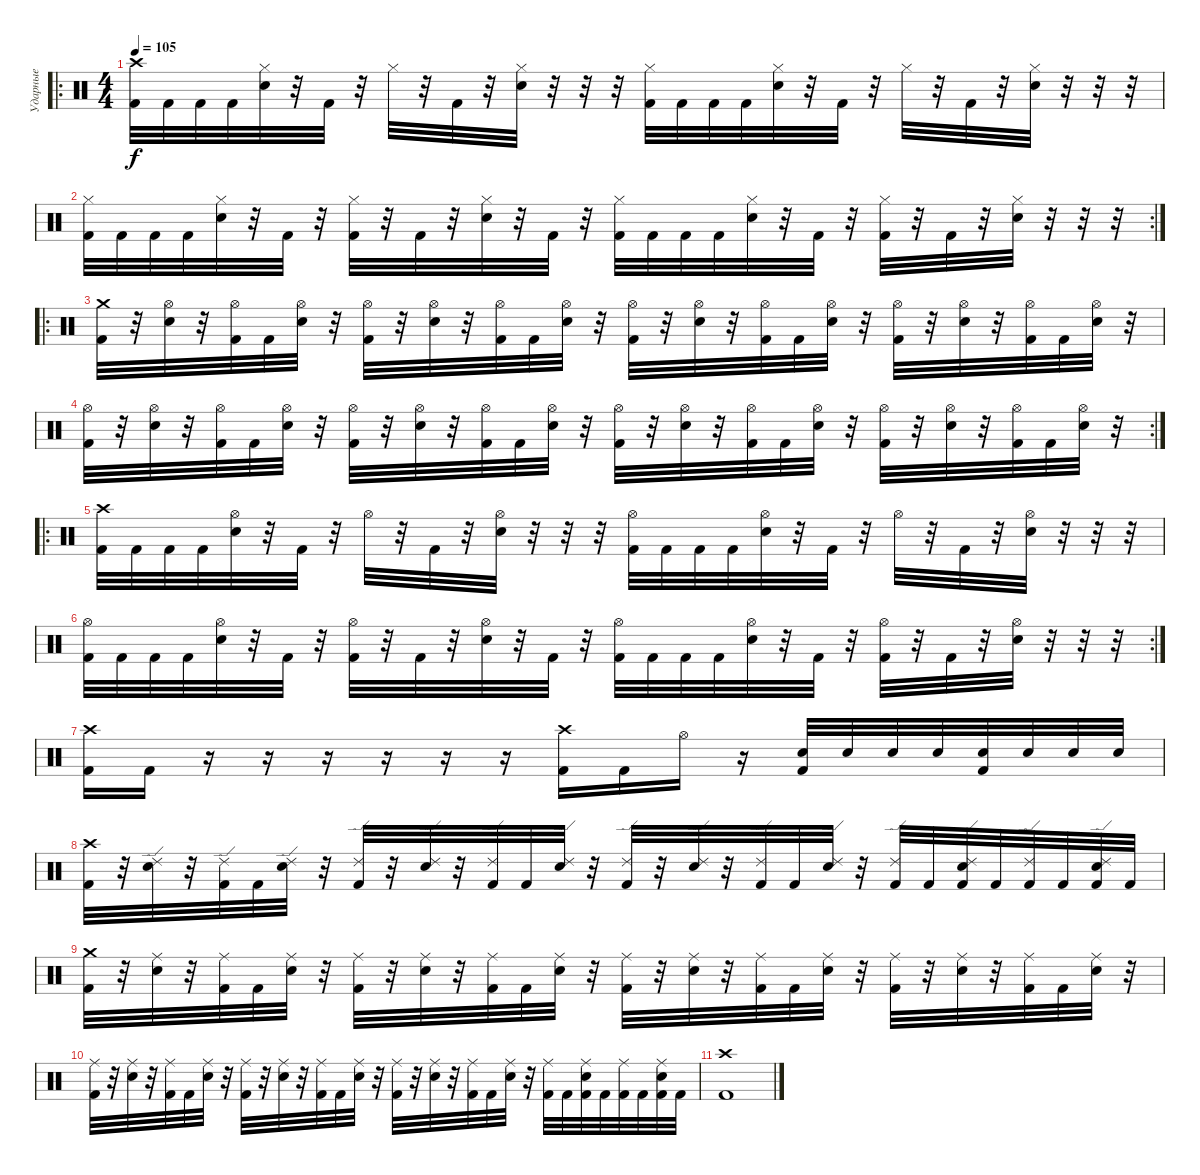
\track ("Ударные" "Ударные") {instrument percussion}
\staff {score}
\articulation defaults
\ro
\ts (4 4)
\tempo 105
\clef neutral
\ks c
("Crash high (hit)" "Kick (hit) 2").32{dy f} "Kick (hit) 2".32 "Kick (hit) 2".32 "Kick (hit) 2".32 ("Hi-Hat (closed)" "Electric Snare (hit)").32 r.32 "Kick (hit) 2".32 r.32 "Hi-Hat (closed)".32 r.32 "Kick (hit) 2".32 r.32 ("Hi-Hat (closed)" "Electric Snare (hit)").32 r.32 r.32 r.32 ("Hi-Hat (closed)" "Kick (hit) 2").32 "Kick (hit) 2".32 "Kick (hit) 2".32 "Kick (hit) 2".32 ("Hi-Hat (closed)" "Electric Snare (hit)").32 r.32 "Kick (hit) 2".32 r.32 "Hi-Hat (closed)".32 r.32 "Kick (hit) 2".32 r.32 ("Hi-Hat (closed)" "Electric Snare (hit)").32 r.32 r.32 r.32 |
\rc 2
("Hi-Hat (closed)" "Kick (hit) 2").32 "Kick (hit) 2".32 "Kick (hit) 2".32 "Kick (hit) 2".32 ("Hi-Hat (closed)" "Electric Snare (hit)").32 r.32 "Kick (hit) 2".32 r.32 ("Hi-Hat (closed)" "Kick (hit) 2").32 r.32 "Kick (hit) 2".32 r.32 ("Hi-Hat (closed)" "Electric Snare (hit)").32 r.32 "Kick (hit) 2".32 r.32 ("Hi-Hat (closed)" "Kick (hit) 2").32 "Kick (hit) 2".32 "Kick (hit) 2".32 "Kick (hit) 2".32 ("Hi-Hat (closed)" "Electric Snare (hit)").32 r.32 "Kick (hit) 2".32 r.32 ("Hi-Hat (closed)" "Kick (hit) 2").32 r.32 "Kick (hit) 2".32 r.32 ("Hi-Hat (closed)" "Electric Snare (hit)").32 r.32 r.32 r.32 |
\ro
("Crash medium (hit)" "Kick (hit) 2").32 r.32 ("Hi-Hat (open)" "Electric Snare (hit)").32 r.32 ("Hi-Hat (open)" "Kick (hit) 2").32 "Kick (hit) 2".32 ("Hi-Hat (open)" "Electric Snare (hit)").32 r.32 ("Hi-Hat (open)" "Kick (hit) 2").32 r.32 ("Hi-Hat (open)" "Electric Snare (hit)").32 r.32 ("Hi-Hat (open)" "Kick (hit) 2").32 "Kick (hit) 2".32 ("Hi-Hat (open)" "Electric Snare (hit)").32 r.32 ("Hi-Hat (open)" "Kick (hit) 2").32 r.32 ("Hi-Hat (open)" "Electric Snare (hit)").32 r.32 ("Hi-Hat (open)" "Kick (hit) 2").32 "Kick (hit) 2".32 ("Hi-Hat (open)" "Electric Snare (hit)").32 r.32 ("Hi-Hat (open)" "Kick (hit) 2").32 r.32 ("Hi-Hat (open)" "Electric Snare (hit)").32 r.32 ("Hi-Hat (open)" "Kick (hit) 2").32 "Kick (hit) 2".32 ("Hi-Hat (open)" "Electric Snare (hit)").32 r.32 |
\rc 2
("Hi-Hat (open)" "Kick (hit) 2").32 r.32 ("Hi-Hat (open)" "Electric Snare (hit)").32 r.32 ("Hi-Hat (open)" "Kick (hit) 2").32 "Kick (hit) 2".32 ("Hi-Hat (open)" "Electric Snare (hit)").32 r.32 ("Hi-Hat (open)" "Kick (hit) 2").32 r.32 ("Hi-Hat (open)" "Electric Snare (hit)").32 r.32 ("Hi-Hat (open)" "Kick (hit) 2").32 "Kick (hit) 2".32 ("Hi-Hat (open)" "Electric Snare (hit)").32 r.32 ("Hi-Hat (open)" "Kick (hit) 2").32 r.32 ("Hi-Hat (open)" "Electric Snare (hit)").32 r.32 ("Hi-Hat (open)" "Kick (hit) 2").32 "Kick (hit) 2".32 ("Hi-Hat (open)" "Electric Snare (hit)").32 r.32 ("Hi-Hat (open)" "Kick (hit) 2").32 r.32 ("Hi-Hat (open)" "Electric Snare (hit)").32 r.32 ("Hi-Hat (open)" "Kick (hit) 2").32 "Kick (hit) 2".32 ("Hi-Hat (open)" "Electric Snare (hit)").32 r.32 |
\ro
("Crash high (hit)" "Kick (hit) 2").32 "Kick (hit) 2".32 "Kick (hit) 2".32 "Kick (hit) 2".32 ("Hi-Hat (open)" "Electric Snare (hit)").32 r.32 "Kick (hit) 2".32 r.32 "Hi-Hat (open)".32 r.32 "Kick (hit) 2".32 r.32 ("Hi-Hat (open)" "Electric Snare (hit)").32 r.32 r.32 r.32 ("Hi-Hat (open)" "Kick (hit) 2").32 "Kick (hit) 2".32 "Kick (hit) 2".32 "Kick (hit) 2".32 ("Hi-Hat (open)" "Electric Snare (hit)").32 r.32 "Kick (hit) 2".32 r.32 "Hi-Hat (open)".32 r.32 "Kick (hit) 2".32 r.32 ("Hi-Hat (open)" "Electric Snare (hit)").32 r.32 r.32 r.32 |
\rc 2
("Hi-Hat (open)" "Kick (hit) 2").32 "Kick (hit) 2".32 "Kick (hit) 2".32 "Kick (hit) 2".32 ("Hi-Hat (open)" "Electric Snare (hit)").32 r.32 "Kick (hit) 2".32 r.32 ("Hi-Hat (open)" "Kick (hit) 2").32 r.32 "Kick (hit) 2".32 r.32 ("Hi-Hat (open)" "Electric Snare (hit)").32 r.32 "Kick (hit) 2".32 r.32 ("Hi-Hat (open)" "Kick (hit) 2").32 "Kick (hit) 2".32 "Kick (hit) 2".32 "Kick (hit) 2".32 ("Hi-Hat (open)" "Electric Snare (hit)").32 r.32 "Kick (hit) 2".32 r.32 ("Hi-Hat (open)" "Kick (hit) 2").32 r.32 "Kick (hit) 2".32 r.32 ("Hi-Hat (open)" "Electric Snare (hit)").32 r.32 r.32 r.32 |
("Crash high (hit)" "Kick (hit) 2").16 "Kick (hit) 2".16 r.16 r.16 r.16 r.16 r.16 r.16 ("Crash high (hit)" "Kick (hit) 2").16 "Kick (hit) 2".16 "Hi-Hat (open)".16 r.16 ("Electric Snare (hit)" "Kick (hit) 2").32 "Electric Snare (hit)".32 "Electric Snare (hit)".32 "Electric Snare (hit)".32 ("Electric Snare (hit)" "Kick (hit) 2").32 "Electric Snare (hit)".32 "Electric Snare (hit)".32 "Electric Snare (hit)".32 |
("Crash high (hit)" "Kick (hit) 2").32 r.32 ("Ride (edge) 2" "Electric Snare (hit)").32 r.32 ("Ride (edge) 2" "Kick (hit) 2").32 "Kick (hit) 2".32 ("Ride (edge) 2" "Electric Snare (hit)").32 r.32 ("Ride (edge) 2" "Kick (hit) 2").32 r.32 ("Ride (edge) 2" "Electric Snare (hit)").32 r.32 ("Ride (edge) 2" "Kick (hit) 2").32 "Kick (hit) 2".32 ("Ride (edge) 2" "Electric Snare (hit)").32 r.32 ("Ride (edge) 2" "Kick (hit) 2").32 r.32 ("Ride (edge) 2" "Electric Snare (hit)").32 r.32 ("Ride (edge) 2" "Kick (hit) 2").32 "Kick (hit) 2".32 ("Ride (edge) 2" "Electric Snare (hit)").32 r.32 ("Ride (edge) 2" "Kick (hit) 2").32 "Kick (hit) 2".32 ("Ride (edge) 2" "Electric Snare (hit)" "Kick (hit) 2").32 "Kick (hit) 2".32 ("Ride (edge) 2" "Kick (hit) 2").32 "Kick (hit) 2".32 ("Ride (edge) 2" "Electric Snare (hit)" "Kick (hit) 2").32 "Kick (hit) 2".32 |
("Crash medium (hit)" "Kick (hit) 2").32 r.32 ("Ride (middle)" "Electric Snare (hit)").32 r.32 ("Ride (middle)" "Kick (hit) 2").32 "Kick (hit) 2".32 ("Ride (middle)" "Electric Snare (hit)").32 r.32 ("Ride (middle)" "Kick (hit) 2").32 r.32 ("Ride (middle)" "Electric Snare (hit)").32 r.32 ("Ride (middle)" "Kick (hit) 2").32 "Kick (hit) 2".32 ("Ride (middle)" "Electric Snare (hit)").32 r.32 ("Ride (middle)" "Kick (hit) 2").32 r.32 ("Ride (middle)" "Electric Snare (hit)").32 r.32 ("Ride (middle)" "Kick (hit) 2").32 "Kick (hit) 2".32 ("Ride (middle)" "Electric Snare (hit)").32 r.32 ("Ride (middle)" "Kick (hit) 2").32 r.32 ("Ride (middle)" "Electric Snare (hit)").32 r.32 ("Ride (middle)" "Kick (hit) 2").32 "Kick (hit) 2".32 ("Ride (middle)" "Electric Snare (hit)").32 r.32 |
("Ride (middle)" "Kick (hit) 2").32 r.32 ("Ride (middle)" "Electric Snare (hit)").32 r.32 ("Ride (middle)" "Kick (hit) 2").32 "Kick (hit) 2".32 ("Ride (middle)" "Electric Snare (hit)").32 r.32 ("Ride (middle)" "Kick (hit) 2").32 r.32 ("Ride (middle)" "Electric Snare (hit)").32 r.32 ("Ride (middle)" "Kick (hit) 2").32 "Kick (hit) 2".32 ("Ride (middle)" "Electric Snare (hit)").32 r.32 ("Ride (middle)" "Kick (hit) 2").32 r.32 ("Ride (middle)" "Electric Snare (hit)").32 r.32 ("Ride (middle)" "Kick (hit) 2").32 "Kick (hit) 2".32 ("Ride (middle)" "Electric Snare (hit)").32 r.32 ("Ride (middle)" "Kick (hit) 2").32 "Kick (hit) 2".32 ("Ride (middle)" "Electric Snare (hit)" "Kick (hit) 2").32 "Kick (hit) 2".32 ("Ride (middle)" "Kick (hit) 2").32 "Kick (hit) 2".32 ("Ride (middle)" "Electric Snare (hit)" "Kick (hit) 2").32 "Kick (hit) 2".32 |
("Crash high (hit)" "Kick (hit) 2").1
